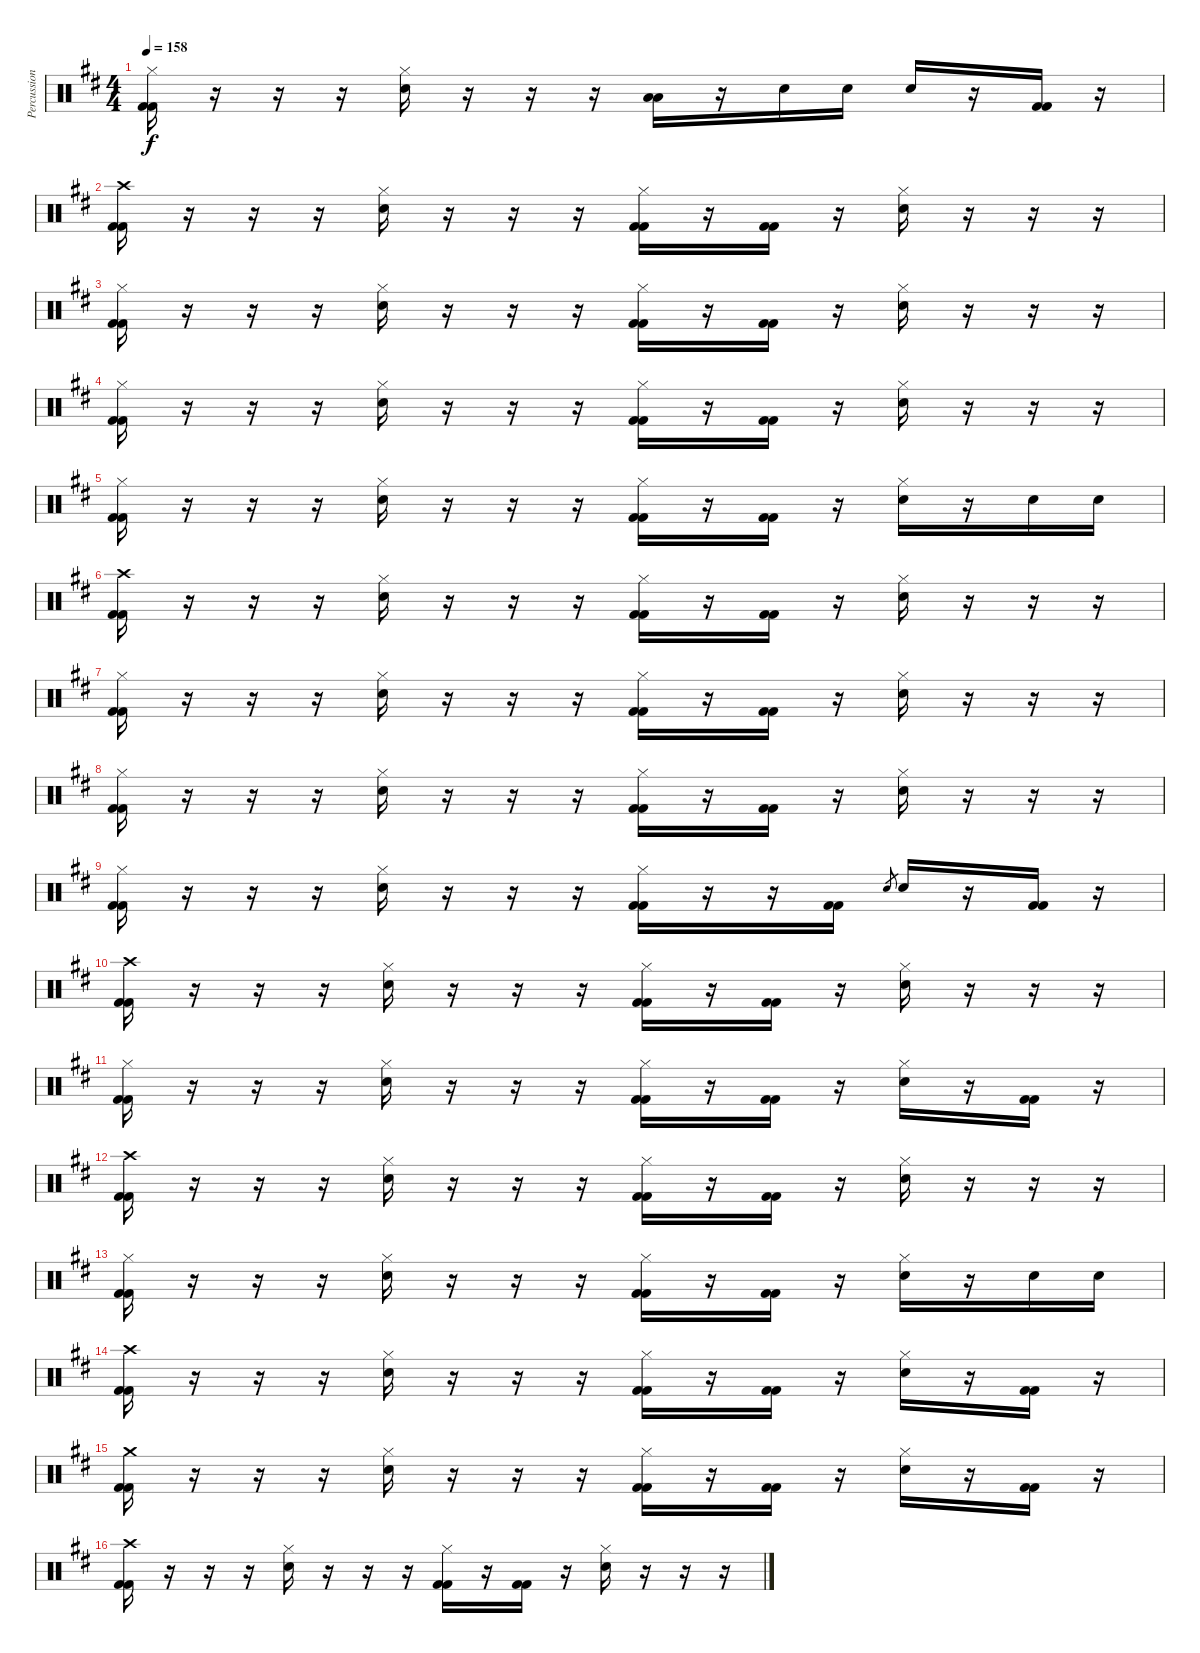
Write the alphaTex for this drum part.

\track ("Percussion" "Percussion") {instrument percussion}
\staff {score}
\articulation defaults
\ts (4 4)
\tempo 158
\clef neutral
\ks d
("Hi-Hat (closed)" "Kick (hit) 2" "Kick (hit) 2").16{dy f} r.16 r.16 r.16 ("Hi-Hat (closed)" "Electric Snare (hit)").16 r.16 r.16 r.16 ("Low Tom (hit)" "Low Tom (hit)").16 r.16 "Electric Snare (hit)".16 "Electric Snare (hit)".16 "Electric Snare (hit)".16 r.16 ("Kick (hit) 2" "Kick (hit) 2").16 r.16 |
("Crash high (hit)" "Kick (hit) 2" "Kick (hit) 2").16 r.16 r.16 r.16 ("Hi-Hat (closed)" "Electric Snare (hit)").16 r.16 r.16 r.16 ("Hi-Hat (closed)" "Kick (hit) 2" "Kick (hit) 2").16 r.16 ("Kick (hit) 2" "Kick (hit) 2").16 r.16 ("Hi-Hat (closed)" "Electric Snare (hit)").16 r.16 r.16 r.16 |
("Hi-Hat (closed)" "Kick (hit) 2" "Kick (hit) 2").16 r.16 r.16 r.16 ("Hi-Hat (closed)" "Electric Snare (hit)").16 r.16 r.16 r.16 ("Hi-Hat (closed)" "Kick (hit) 2" "Kick (hit) 2").16 r.16 ("Kick (hit) 2" "Kick (hit) 2").16 r.16 ("Hi-Hat (closed)" "Electric Snare (hit)").16 r.16 r.16 r.16 |
("Hi-Hat (closed)" "Kick (hit) 2" "Kick (hit) 2").16 r.16 r.16 r.16 ("Hi-Hat (closed)" "Electric Snare (hit)").16 r.16 r.16 r.16 ("Hi-Hat (closed)" "Kick (hit) 2" "Kick (hit) 2").16 r.16 ("Kick (hit) 2" "Kick (hit) 2").16 r.16 ("Hi-Hat (closed)" "Electric Snare (hit)").16 r.16 r.16 r.16 |
("Hi-Hat (closed)" "Kick (hit) 2" "Kick (hit) 2").16 r.16 r.16 r.16 ("Hi-Hat (closed)" "Electric Snare (hit)").16 r.16 r.16 r.16 ("Hi-Hat (closed)" "Kick (hit) 2" "Kick (hit) 2").16 r.16 ("Kick (hit) 2" "Kick (hit) 2").16 r.16 ("Hi-Hat (closed)" "Electric Snare (hit)").16 r.16 "Electric Snare (hit)".16 "Electric Snare (hit)".16 |
("Crash high (hit)" "Kick (hit) 2" "Kick (hit) 2").16 r.16 r.16 r.16 ("Hi-Hat (closed)" "Electric Snare (hit)").16 r.16 r.16 r.16 ("Hi-Hat (closed)" "Kick (hit) 2" "Kick (hit) 2").16 r.16 ("Kick (hit) 2" "Kick (hit) 2").16 r.16 ("Hi-Hat (closed)" "Electric Snare (hit)").16 r.16 r.16 r.16 |
("Hi-Hat (closed)" "Kick (hit) 2" "Kick (hit) 2").16 r.16 r.16 r.16 ("Hi-Hat (closed)" "Electric Snare (hit)").16 r.16 r.16 r.16 ("Hi-Hat (closed)" "Kick (hit) 2" "Kick (hit) 2").16 r.16 ("Kick (hit) 2" "Kick (hit) 2").16 r.16 ("Hi-Hat (closed)" "Electric Snare (hit)").16 r.16 r.16 r.16 |
("Hi-Hat (closed)" "Kick (hit) 2" "Kick (hit) 2").16 r.16 r.16 r.16 ("Hi-Hat (closed)" "Electric Snare (hit)").16 r.16 r.16 r.16 ("Hi-Hat (closed)" "Kick (hit) 2" "Kick (hit) 2").16 r.16 ("Kick (hit) 2" "Kick (hit) 2").16 r.16 ("Hi-Hat (closed)" "Electric Snare (hit)").16 r.16 r.16 r.16 |
("Hi-Hat (closed)" "Kick (hit) 2" "Kick (hit) 2").16 r.16 r.16 r.16 ("Hi-Hat (closed)" "Electric Snare (hit)").16 r.16 r.16 r.16 ("Hi-Hat (closed)" "Kick (hit) 2" "Kick (hit) 2").16 r.16 r.16 ("Kick (hit) 2" "Kick (hit) 2").16 "Electric Snare (hit)".8{gr} "Electric Snare (hit)".16 r.16 ("Kick (hit) 2" "Kick (hit) 2").16 r.16 |
("Crash high (hit)" "Kick (hit) 2" "Kick (hit) 2").16 r.16 r.16 r.16 ("Hi-Hat (closed)" "Electric Snare (hit)").16 r.16 r.16 r.16 ("Hi-Hat (closed)" "Kick (hit) 2" "Kick (hit) 2").16 r.16 ("Kick (hit) 2" "Kick (hit) 2").16 r.16 ("Hi-Hat (closed)" "Electric Snare (hit)").16 r.16 r.16 r.16 |
("Hi-Hat (closed)" "Kick (hit) 2" "Kick (hit) 2").16 r.16 r.16 r.16 ("Hi-Hat (closed)" "Electric Snare (hit)").16 r.16 r.16 r.16 ("Hi-Hat (closed)" "Kick (hit) 2" "Kick (hit) 2").16 r.16 ("Kick (hit) 2" "Kick (hit) 2").16 r.16 ("Hi-Hat (closed)" "Electric Snare (hit)").16 r.16 ("Kick (hit) 2" "Kick (hit) 2").16 r.16 |
("Crash high (hit)" "Kick (hit) 2" "Kick (hit) 2").16 r.16 r.16 r.16 ("Hi-Hat (closed)" "Electric Snare (hit)").16 r.16 r.16 r.16 ("Hi-Hat (closed)" "Kick (hit) 2" "Kick (hit) 2").16 r.16 ("Kick (hit) 2" "Kick (hit) 2").16 r.16 ("Hi-Hat (closed)" "Electric Snare (hit)").16 r.16 r.16 r.16 |
("Hi-Hat (closed)" "Kick (hit) 2" "Kick (hit) 2").16 r.16 r.16 r.16 ("Hi-Hat (closed)" "Electric Snare (hit)").16 r.16 r.16 r.16 ("Hi-Hat (closed)" "Kick (hit) 2" "Kick (hit) 2").16 r.16 ("Kick (hit) 2" "Kick (hit) 2").16 r.16 ("Hi-Hat (closed)" "Electric Snare (hit)").16 r.16 "Electric Snare (hit)".16 "Electric Snare (hit)".16 |
("Crash high (hit)" "Kick (hit) 2" "Kick (hit) 2").16 r.16 r.16 r.16 ("Hi-Hat (closed)" "Electric Snare (hit)").16 r.16 r.16 r.16 ("Hi-Hat (closed)" "Kick (hit) 2" "Kick (hit) 2").16 r.16 ("Kick (hit) 2" "Kick (hit) 2").16 r.16 ("Hi-Hat (closed)" "Electric Snare (hit)").16 r.16 ("Kick (hit) 2" "Kick (hit) 2").16 r.16 |
("Crash medium (hit)" "Kick (hit) 2" "Kick (hit) 2").16 r.16 r.16 r.16 ("Hi-Hat (closed)" "Electric Snare (hit)").16 r.16 r.16 r.16 ("Hi-Hat (closed)" "Kick (hit) 2" "Kick (hit) 2").16 r.16 ("Kick (hit) 2" "Kick (hit) 2").16 r.16 ("Hi-Hat (closed)" "Electric Snare (hit)").16 r.16 ("Kick (hit) 2" "Kick (hit) 2").16 r.16 |
("Crash high (hit)" "Kick (hit) 2" "Kick (hit) 2").16 r.16 r.16 r.16 ("Hi-Hat (closed)" "Electric Snare (hit)").16 r.16 r.16 r.16 ("Hi-Hat (closed)" "Kick (hit) 2" "Kick (hit) 2").16 r.16 ("Kick (hit) 2" "Kick (hit) 2").16 r.16 ("Hi-Hat (closed)" "Electric Snare (hit)").16 r.16 r.16 r.16
